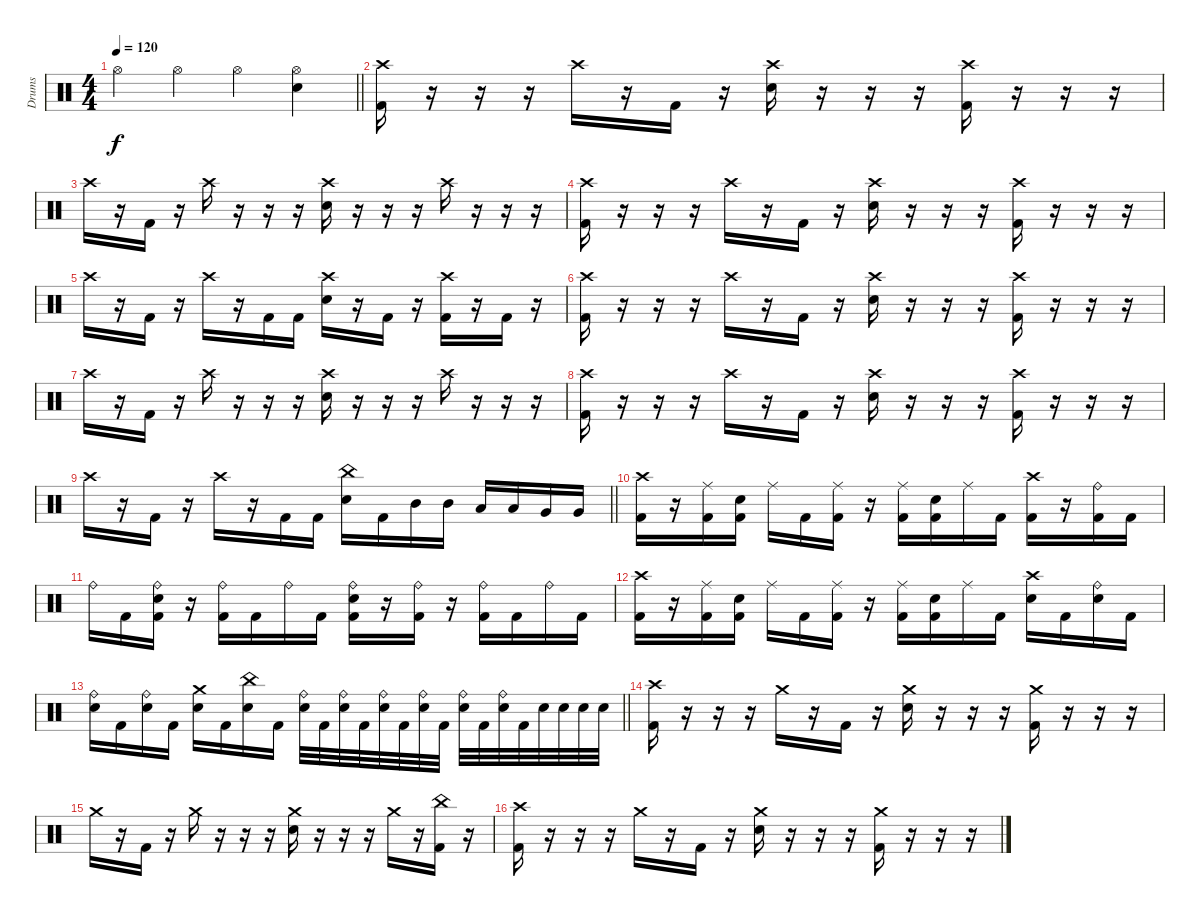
\track ("Drums" "Drums") {instrument percussion}
\staff
\articulation defaults
\ts (4 4)
\tempo 120
\clef neutral
\barLineRight lightlight
\ks c "Hi-Hat (open)".4{dy f} "Hi-Hat (open)".4 "Hi-Hat (open)".4
("Hi-Hat (open)" "Electric Snare (hit)").4 |
\section ("" "")
("Crash high (hit)" "Kick (hit) 2").16 r.16 r.16 r.16 "Crash high (hit)".16 r.16 "Kick (hit) 2".16 r.16 ("Crash high (hit)" "Electric Snare (hit)").16 r.16 r.16 r.16 ("Crash high (hit)" "Kick (hit) 2").16 r.16 r.16 r.16 |
"Crash high (hit)".16 r.16 "Kick (hit) 2".16 r.16 "Crash high (hit)".16 r.16 r.16 r.16 ("Crash high (hit)" "Electric Snare (hit)").16 r.16 r.16 r.16 "Crash high (hit)".16 r.16 r.16 r.16 |
("Crash high (hit)" "Kick (hit) 2").16 r.16 r.16 r.16 "Crash high (hit)".16 r.16 "Kick (hit) 2".16 r.16 ("Crash high (hit)" "Electric Snare (hit)").16 r.16 r.16 r.16 ("Crash high (hit)" "Kick (hit) 2").16 r.16 r.16 r.16 |
"Crash high (hit)".16 r.16 "Kick (hit) 2".16 r.16 "Crash high (hit)".16 r.16 "Kick (hit) 2".16 "Kick (hit) 2".16 ("Crash high (hit)" "Electric Snare (hit)").16 r.16 "Kick (hit) 2".16 r.16 ("Crash high (hit)" "Kick (hit) 2").16 r.16 "Kick (hit) 2".16 r.16 |
("Crash high (hit)" "Kick (hit) 2").16 r.16 r.16 r.16 "Crash high (hit)".16 r.16 "Kick (hit) 2".16 r.16 ("Crash high (hit)" "Electric Snare (hit)").16 r.16 r.16 r.16 ("Crash high (hit)" "Kick (hit) 2").16 r.16 r.16 r.16 |
"Crash high (hit)".16 r.16 "Kick (hit) 2".16 r.16 "Crash high (hit)".16 r.16 r.16 r.16 ("Crash high (hit)" "Electric Snare (hit)").16 r.16 r.16 r.16 "Crash high (hit)".16 r.16 r.16 r.16 |
("Crash high (hit)" "Kick (hit) 2").16 r.16 r.16 r.16 "Crash high (hit)".16 r.16 "Kick (hit) 2".16 r.16 ("Crash high (hit)" "Electric Snare (hit)").16 r.16 r.16 r.16 ("Crash high (hit)" "Kick (hit) 2").16 r.16 r.16 r.16 |
\barLineRight lightlight "Crash high (hit)".16
r.16 "Kick (hit) 2".16 r.16 "Crash high (hit)".16 r.16 "Kick (hit) 2".16 "Kick (hit) 2".16 ("China (hit)" "Electric Snare (hit)").16 "Kick (hit) 2".16 "Mid Tom (hit)".16 "Mid Tom (hit)".16 "Low Tom (hit)".16 "Low Tom (hit)".16 "Very Low Tom (hit)".16 "Very Low Tom (hit)".16 |
("Crash high (hit)" "Kick (hit) 2").16 r.16 ("Ride (middle)" "Kick (hit) 2").16 ("Electric Snare (hit)" "Kick (hit) 2").16 "Ride (middle)".16 "Kick (hit) 2".16 ("Ride (middle)" "Kick (hit) 2").16 r.16 ("Ride (middle)" "Kick (hit) 2").16 ("Electric Snare (hit)" "Kick (hit) 2").16 "Ride (middle)".16 "Kick (hit) 2".16 ("Crash high (hit)" "Kick (hit) 2").16 r.16 ("Ride (bell)" "Kick (hit) 2").16 "Kick (hit) 2".16 |
"Ride (bell)".16 "Kick (hit) 2".16 ("Ride (bell)" "Electric Snare (hit)" "Kick (hit) 2").16 r.16 ("Ride (bell)" "Kick (hit) 2").16 "Kick (hit) 2".16 "Ride (bell)".16 "Kick (hit) 2".16 ("Ride (bell)" "Electric Snare (hit)" "Kick (hit) 2").16 r.16 ("Ride (bell)" "Kick (hit) 2").16 r.16 ("Ride (bell)" "Kick (hit) 2").16 "Kick (hit) 2".16 "Ride (bell)".16 "Kick (hit) 2".16 |
("Crash high (hit)" "Kick (hit) 2").16 r.16 ("Ride (middle)" "Kick (hit) 2").16 ("Electric Snare (hit)" "Kick (hit) 2").16 "Ride (middle)".16 "Kick (hit) 2".16 ("Ride (middle)" "Kick (hit) 2").16 r.16 ("Ride (middle)" "Kick (hit) 2").16 ("Electric Snare (hit)" "Kick (hit) 2").16 "Ride (middle)".16 "Kick (hit) 2".16 ("Crash high (hit)" "Electric Snare (hit)").16 "Kick (hit) 2".16 ("Ride (bell)" "Electric Snare (hit)").16 "Kick (hit) 2".16 |
\barLineRight lightlight
("Ride (bell)" "Electric Snare (hit)").16 "Kick (hit) 2".16 ("Ride (bell)" "Electric Snare (hit)").16 "Kick (hit) 2".16 ("Crash medium (hit)" "Electric Snare (hit)").16 "Kick (hit) 2".16 ("China (hit)" "Electric Snare (hit)").16 "Kick (hit) 2".16 ("Ride (bell)" "Electric Snare (hit)").32 "Kick (hit) 2".32 ("Ride (bell)" "Electric Snare (hit)").32 "Kick (hit) 2".32 ("Ride (bell)" "Electric Snare (hit)").32 "Kick (hit) 2".32 ("Ride (bell)" "Electric Snare (hit)").32 "Kick (hit) 2".32 ("Ride (bell)" "Electric Snare (hit)").32 "Kick (hit) 2".32 ("Ride (bell)" "Electric Snare (hit)").32 "Kick (hit) 2".32 "Electric Snare (hit)".32 "Electric Snare (hit)".32 "Electric Snare (hit)".32 "Electric Snare (hit)".32 |
("Crash high (hit)" "Kick (hit) 2").16 r.16 r.16 r.16 "Crash medium (hit)".16 r.16 "Kick (hit) 2".16 r.16 ("Crash medium (hit)" "Electric Snare (hit)").16 r.16 r.16 r.16 ("Crash medium (hit)" "Kick (hit) 2").16 r.16 r.16 r.16 |
"Crash medium (hit)".16 r.16 "Kick (hit) 2".16 r.16 "Crash medium (hit)".16 r.16 r.16 r.16 ("Crash medium (hit)" "Electric Snare (hit)").16 r.16 r.16 r.16 "Crash medium (hit)".16 r.16 ("China (hit)" "Kick (hit) 2").16 r.16 |
("Crash high (hit)" "Kick (hit) 2").16 r.16 r.16 r.16 "Crash medium (hit)".16 r.16 "Kick (hit) 2".16 r.16 ("Crash medium (hit)" "Electric Snare (hit)").16 r.16 r.16 r.16 ("Crash medium (hit)" "Kick (hit) 2").16 r.16 r.16 r.16
